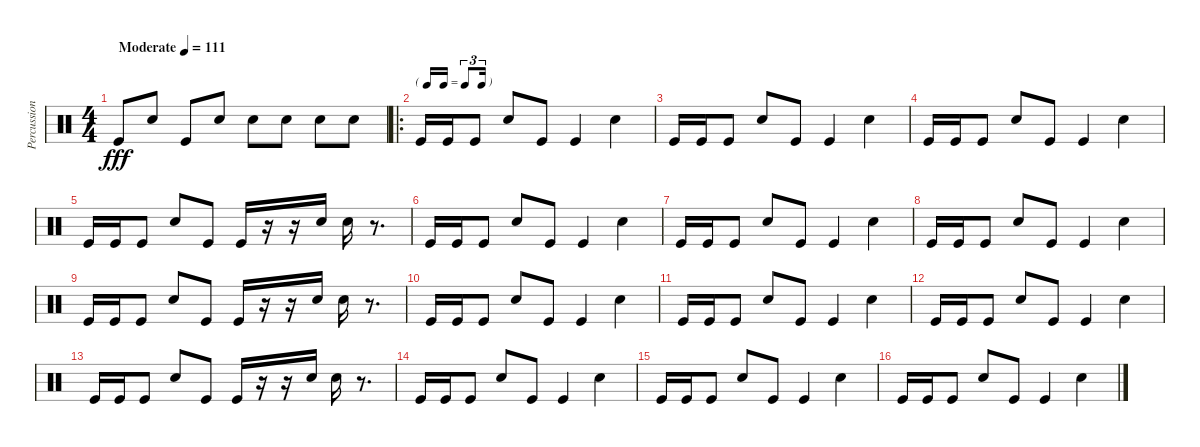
\track ("Percussions" "Percussion") {instrument percussion}
\staff {score}
\articulation defaults
\ts (4 4)
\tempo (111 "Moderate")
\clef neutral
\ks c "Kick (hit)".8{dy fff} "Electric Snare (hit)".8 "Kick (hit)".8 "Electric Snare (hit)".8 "Electric Snare (hit)".8 "Electric Snare (hit)".8 "Electric Snare (hit)".8 "Electric Snare (hit)".8
|
\ro
\tf triplet16th "Kick (hit)".16 "Kick (hit)".16 "Kick (hit)".8 "Electric Snare (hit)".8 "Kick (hit)".8 "Kick (hit)".4 "Electric Snare (hit)".4
|
"Kick (hit)".16 "Kick (hit)".16 "Kick (hit)".8 "Electric Snare (hit)".8 "Kick (hit)".8 "Kick (hit)".4 "Electric Snare (hit)".4 |
"Kick (hit)".16 "Kick (hit)".16 "Kick (hit)".8 "Electric Snare (hit)".8 "Kick (hit)".8 "Kick (hit)".4 "Electric Snare (hit)".4 |
"Kick (hit)".16 "Kick (hit)".16 "Kick (hit)".8 "Electric Snare (hit)".8 "Kick (hit)".8 "Kick (hit)".16 r.16 r.16 "Electric Snare (hit)".16 "Electric Snare (hit)".16 r.8{d} |
"Kick (hit)".16 "Kick (hit)".16 "Kick (hit)".8 "Electric Snare (hit)".8 "Kick (hit)".8 "Kick (hit)".4 "Electric Snare (hit)".4 |
"Kick (hit)".16 "Kick (hit)".16 "Kick (hit)".8 "Electric Snare (hit)".8 "Kick (hit)".8 "Kick (hit)".4 "Electric Snare (hit)".4 |
"Kick (hit)".16 "Kick (hit)".16 "Kick (hit)".8 "Electric Snare (hit)".8 "Kick (hit)".8 "Kick (hit)".4 "Electric Snare (hit)".4 |
"Kick (hit)".16 "Kick (hit)".16 "Kick (hit)".8 "Electric Snare (hit)".8 "Kick (hit)".8 "Kick (hit)".16 r.16 r.16 "Electric Snare (hit)".16 "Electric Snare (hit)".16 r.8{d} |
"Kick (hit)".16 "Kick (hit)".16 "Kick (hit)".8 "Electric Snare (hit)".8 "Kick (hit)".8 "Kick (hit)".4 "Electric Snare (hit)".4 |
"Kick (hit)".16 "Kick (hit)".16 "Kick (hit)".8 "Electric Snare (hit)".8 "Kick (hit)".8 "Kick (hit)".4 "Electric Snare (hit)".4 |
"Kick (hit)".16 "Kick (hit)".16 "Kick (hit)".8 "Electric Snare (hit)".8 "Kick (hit)".8 "Kick (hit)".4 "Electric Snare (hit)".4 |
"Kick (hit)".16 "Kick (hit)".16 "Kick (hit)".8 "Electric Snare (hit)".8 "Kick (hit)".8 "Kick (hit)".16 r.16 r.16 "Electric Snare (hit)".16 "Electric Snare (hit)".16 r.8{d} |
"Kick (hit)".16 "Kick (hit)".16 "Kick (hit)".8 "Electric Snare (hit)".8 "Kick (hit)".8 "Kick (hit)".4 "Electric Snare (hit)".4 |
"Kick (hit)".16 "Kick (hit)".16 "Kick (hit)".8 "Electric Snare (hit)".8 "Kick (hit)".8 "Kick (hit)".4 "Electric Snare (hit)".4 |
"Kick (hit)".16 "Kick (hit)".16 "Kick (hit)".8 "Electric Snare (hit)".8 "Kick (hit)".8 "Kick (hit)".4 "Electric Snare (hit)".4
